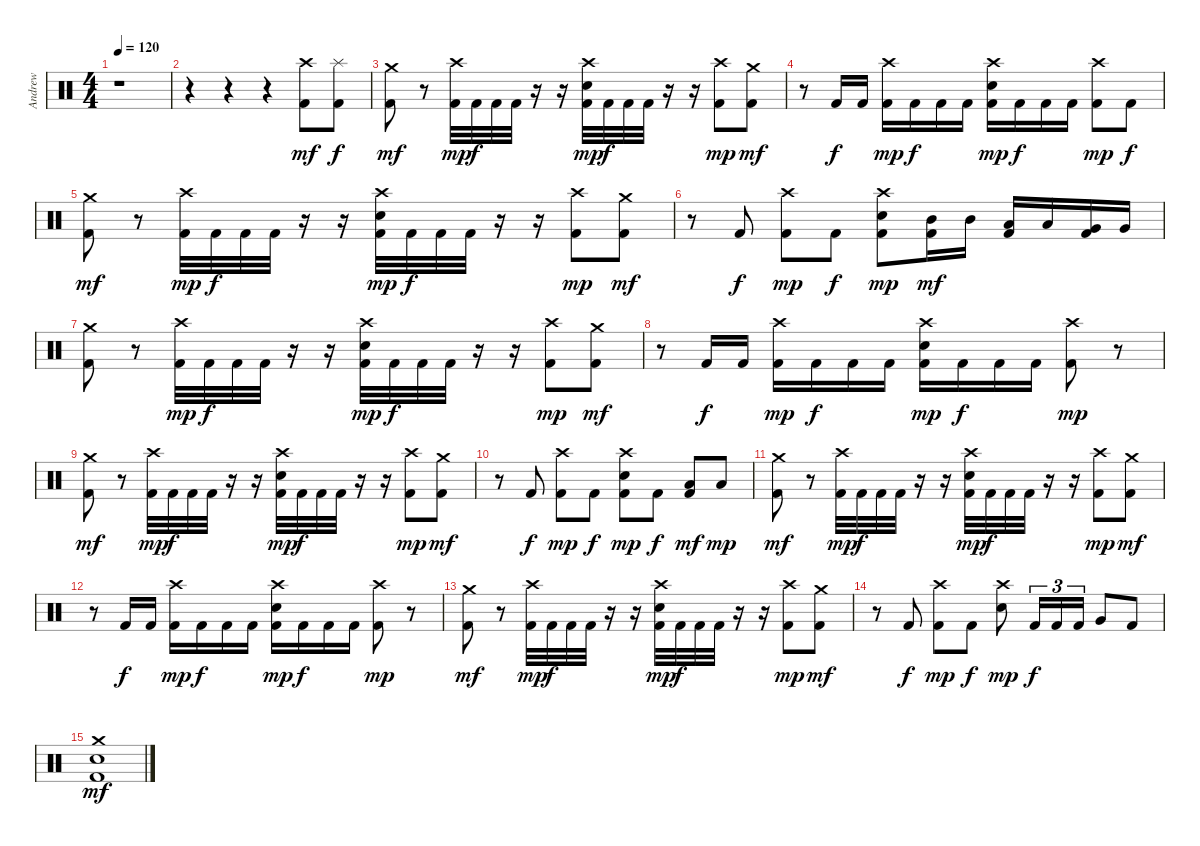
\track ("Andrew" "Andrew") {instrument percussion}
\staff {score}
\articulation defaults
\ts (4 4)
\tempo 120
\clef neutral
\ks c
r.1{dy f} |
r.4 r.4 r.4 ("Crash high (hit)" "Kick (hit) 2").8{dy mf} ("Splash (hit)" "Kick (hit) 2").8{dy f} |
("Crash medium (hit)" "Kick (hit) 2").8{dy mf} r.8 ("Crash high (hit)" "Kick (hit) 2").32{dy mp} "Kick (hit) 2".32{dy f} "Kick (hit) 2".32 "Kick (hit) 2".32 r.16 r.16 ("Crash high (hit)" "Electric Snare (hit)" "Kick (hit) 2").32{dy mp} "Kick (hit) 2".32{dy f} "Kick (hit) 2".32 "Kick (hit) 2".32 r.16 r.16 ("Crash high (hit)" "Kick (hit) 2").8{dy mp} ("Crash medium (hit)" "Kick (hit) 2").8{dy mf} |
r.8 "Kick (hit) 2".16{dy f} "Kick (hit) 2".16 ("Crash high (hit)" "Kick (hit) 2").16{dy mp} "Kick (hit) 2".16{dy f} "Kick (hit) 2".16 "Kick (hit) 2".16 ("Crash high (hit)" "Electric Snare (hit)" "Kick (hit) 2").16{dy mp} "Kick (hit) 2".16{dy f} "Kick (hit) 2".16 "Kick (hit) 2".16 ("Crash high (hit)" "Kick (hit) 2").8{dy mp} "Kick (hit) 2".8{dy f} |
("Crash medium (hit)" "Kick (hit) 2").8{dy mf} r.8 ("Crash high (hit)" "Kick (hit) 2").32{dy mp} "Kick (hit) 2".32{dy f} "Kick (hit) 2".32 "Kick (hit) 2".32 r.16 r.16 ("Crash high (hit)" "Electric Snare (hit)" "Kick (hit) 2").32{dy mp} "Kick (hit) 2".32{dy f} "Kick (hit) 2".32 "Kick (hit) 2".32 r.16 r.16 ("Crash high (hit)" "Kick (hit) 2").8{dy mp} ("Crash medium (hit)" "Kick (hit) 2").8{dy mf} |
r.8 "Kick (hit) 2".8{dy f} ("Crash high (hit)" "Kick (hit) 2").8{dy mp} "Kick (hit) 2".8{dy f} ("Crash high (hit)" "Electric Snare (hit)" "Kick (hit) 2").8{dy mp} ("Mid Tom (hit)" "Kick (hit) 2").16{dy mf} "Mid Tom (hit)".16 ("Low Tom (hit)" "Kick (hit) 2").16 "Low Tom (hit)".16 ("Very Low Tom (hit)" "Kick (hit) 2").16 "Very Low Tom (hit)".16 |
("Crash medium (hit)" "Kick (hit) 2").8 r.8 ("Crash high (hit)" "Kick (hit) 2").32{dy mp} "Kick (hit) 2".32{dy f} "Kick (hit) 2".32 "Kick (hit) 2".32 r.16 r.16 ("Crash high (hit)" "Electric Snare (hit)" "Kick (hit) 2").32{dy mp} "Kick (hit) 2".32{dy f} "Kick (hit) 2".32 "Kick (hit) 2".32 r.16 r.16 ("Crash high (hit)" "Kick (hit) 2").8{dy mp} ("Crash medium (hit)" "Kick (hit) 2").8{dy mf} |
r.8 "Kick (hit) 2".16{dy f} "Kick (hit) 2".16 ("Crash high (hit)" "Kick (hit) 2").16{dy mp} "Kick (hit) 2".16{dy f} "Kick (hit) 2".16 "Kick (hit) 2".16 ("Crash high (hit)" "Electric Snare (hit)" "Kick (hit) 2").16{dy mp} "Kick (hit) 2".16{dy f} "Kick (hit) 2".16 "Kick (hit) 2".16 ("Crash high (hit)" "Kick (hit) 2").8{dy mp} r.8 |
("Crash medium (hit)" "Kick (hit) 2").8{dy mf} r.8 ("Crash high (hit)" "Kick (hit) 2").32{dy mp} "Kick (hit) 2".32{dy f} "Kick (hit) 2".32 "Kick (hit) 2".32 r.16 r.16 ("Crash high (hit)" "Electric Snare (hit)" "Kick (hit) 2").32{dy mp} "Kick (hit) 2".32{dy f} "Kick (hit) 2".32 "Kick (hit) 2".32 r.16 r.16 ("Crash high (hit)" "Kick (hit) 2").8{dy mp} ("Crash medium (hit)" "Kick (hit) 2").8{dy mf} |
r.8 "Kick (hit) 2".8{dy f} ("Crash high (hit)" "Kick (hit) 2").8{dy mp} "Kick (hit) 2".8{dy f} ("Crash high (hit)" "Electric Snare (hit)" "Kick (hit) 2").8{dy mp} "Kick (hit) 2".8{dy f} ("Low Tom (hit)" "Kick (hit) 2").8{dy mf} "Low Floor Tom (hit)".8{dy mp} |
("Crash medium (hit)" "Kick (hit) 2").8{dy mf} r.8 ("Crash high (hit)" "Kick (hit) 2").32{dy mp} "Kick (hit) 2".32{dy f} "Kick (hit) 2".32 "Kick (hit) 2".32 r.16 r.16 ("Crash high (hit)" "Electric Snare (hit)" "Kick (hit) 2").32{dy mp} "Kick (hit) 2".32{dy f} "Kick (hit) 2".32 "Kick (hit) 2".32 r.16 r.16 ("Crash high (hit)" "Kick (hit) 2").8{dy mp} ("Crash medium (hit)" "Kick (hit) 2").8{dy mf} |
r.8 "Kick (hit) 2".16{dy f} "Kick (hit) 2".16 ("Crash high (hit)" "Kick (hit) 2").16{dy mp} "Kick (hit) 2".16{dy f} "Kick (hit) 2".16 "Kick (hit) 2".16 ("Crash high (hit)" "Electric Snare (hit)" "Kick (hit) 2").16{dy mp} "Kick (hit) 2".16{dy f} "Kick (hit) 2".16 "Kick (hit) 2".16 ("Crash high (hit)" "Kick (hit) 2").8{dy mp} r.8 |
("Crash medium (hit)" "Kick (hit) 2").8{dy mf} r.8 ("Crash high (hit)" "Kick (hit) 2").32{dy mp} "Kick (hit) 2".32{dy f} "Kick (hit) 2".32 "Kick (hit) 2".32 r.16 r.16 ("Crash high (hit)" "Electric Snare (hit)" "Kick (hit) 2").32{dy mp} "Kick (hit) 2".32{dy f} "Kick (hit) 2".32 "Kick (hit) 2".32 r.16 r.16 ("Crash high (hit)" "Kick (hit) 2").8{dy mp} ("Crash medium (hit)" "Kick (hit) 2").8{dy mf} |
r.8 "Kick (hit) 2".8{dy f} ("Crash high (hit)" "Kick (hit) 2").8{dy mp} "Kick (hit) 2".8{dy f} ("Crash high (hit)" "Electric Snare (hit)").8{dy mp} "Kick (hit) 2".16{tu (3 2) dy f} "Kick (hit) 2".16{tu (3 2)} "Kick (hit) 2".16{tu (3 2)} "Very Low Tom (hit)".8 "Kick (hit) 2".8 |
("Crash medium (hit)" "Electric Snare (hit)" "Kick (hit) 2").1{dy mf}
